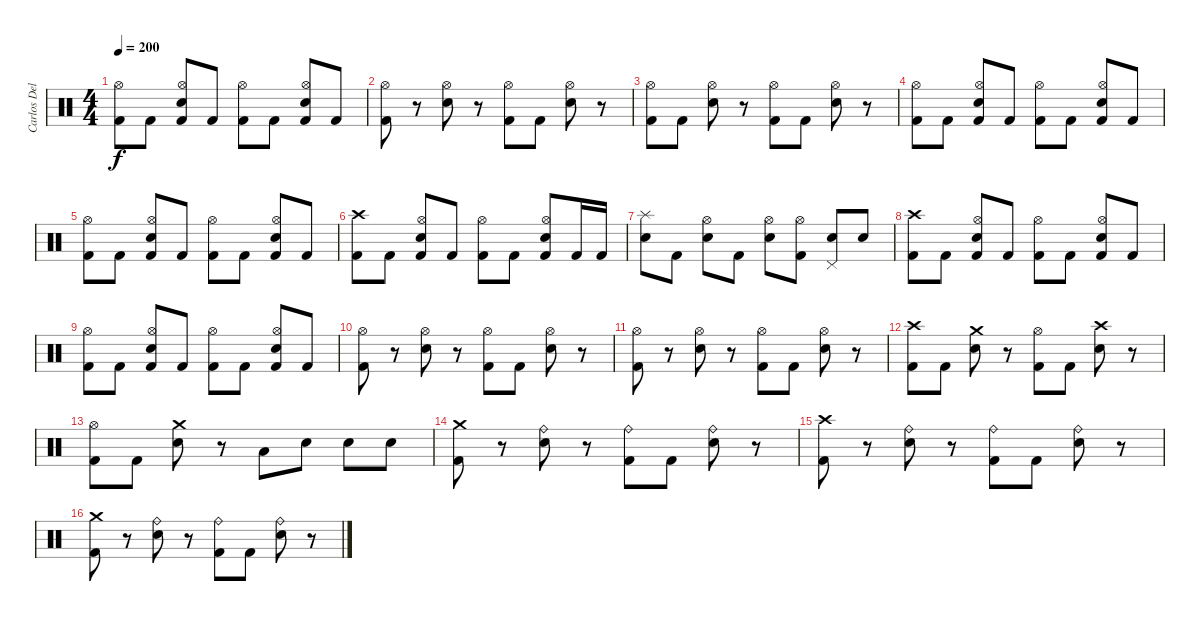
\track ("Carlos Delgado" "Carlos Del") {instrument percussion}
\staff {score}
\articulation defaults
\ts (4 4)
\tempo 200
\clef neutral
\ks c
("Kick (hit) 2" "Hi-Hat (open)").8{dy f} "Kick (hit) 2".8 ("Kick (hit) 2" "Electric Snare (hit)" "Hi-Hat (open)").8 "Kick (hit) 2".8 ("Hi-Hat (open)" "Kick (hit) 2").8 "Kick (hit) 2".8 ("Kick (hit) 2" "Hi-Hat (open)" "Electric Snare (hit)").8 "Kick (hit) 2".8 |
("Kick (hit) 2" "Hi-Hat (open)").8 r.8 ("Electric Snare (hit)" "Hi-Hat (open)").8 r.8 ("Kick (hit) 2" "Hi-Hat (open)").8 "Kick (hit) 2".8 ("Electric Snare (hit)" "Hi-Hat (open)").8 r.8 |
("Kick (hit) 2" "Hi-Hat (open)").8 "Kick (hit) 2".8 ("Hi-Hat (open)" "Electric Snare (hit)").8 r.8 ("Hi-Hat (open)" "Kick (hit) 2").8 "Kick (hit) 2".8 ("Hi-Hat (open)" "Electric Snare (hit)").8 r.8 |
("Kick (hit) 2" "Hi-Hat (open)").8 "Kick (hit) 2".8 ("Kick (hit) 2" "Electric Snare (hit)" "Hi-Hat (open)").8 "Kick (hit) 2".8 ("Hi-Hat (open)" "Kick (hit) 2").8 "Kick (hit) 2".8 ("Kick (hit) 2" "Hi-Hat (open)" "Electric Snare (hit)").8 "Kick (hit) 2".8 |
("Kick (hit) 2" "Hi-Hat (open)").8 "Kick (hit) 2".8 ("Kick (hit) 2" "Electric Snare (hit)" "Hi-Hat (open)").8 "Kick (hit) 2".8 ("Kick (hit) 2" "Hi-Hat (open)").8 "Kick (hit) 2".8 ("Kick (hit) 2" "Electric Snare (hit)" "Hi-Hat (open)").8 "Kick (hit) 2".8 |
("Kick (hit) 2" "Crash high (hit)").8 "Kick (hit) 2".8 ("Kick (hit) 2" "Electric Snare (hit)" "Hi-Hat (open)").8 "Kick (hit) 2".8 ("Hi-Hat (open)" "Kick (hit) 2").8 "Kick (hit) 2".8 ("Kick (hit) 2" "Hi-Hat (open)" "Electric Snare (hit)").8 "Kick (hit) 2".16 "Kick (hit) 2".16 |
("Splash (hit)" "Electric Snare (hit)").8 "Kick (hit) 2".8 ("Hi-Hat (open)" "Electric Snare (hit)").8 "Kick (hit) 2".8 ("Hi-Hat (open)" "Electric Snare (hit)").8 ("Kick (hit) 2" "Hi-Hat (open)").8 ("Pedal Hi-Hat (hit)" "Electric Snare (hit)").8 "Electric Snare (hit)".8 |
("Kick (hit) 2" "Crash high (hit)").8 "Kick (hit) 2".8 ("Kick (hit) 2" "Electric Snare (hit)" "Hi-Hat (open)").8 "Kick (hit) 2".8 ("Kick (hit) 2" "Hi-Hat (open)").8 "Kick (hit) 2".8 ("Kick (hit) 2" "Electric Snare (hit)" "Hi-Hat (open)").8 "Kick (hit) 2".8 |
("Kick (hit) 2" "Hi-Hat (open)").8 "Kick (hit) 2".8 ("Kick (hit) 2" "Electric Snare (hit)" "Hi-Hat (open)").8 "Kick (hit) 2".8 ("Kick (hit) 2" "Hi-Hat (open)").8 "Kick (hit) 2".8 ("Kick (hit) 2" "Hi-Hat (open)" "Electric Snare (hit)").8 "Kick (hit) 2".8 |
("Kick (hit) 2" "Hi-Hat (open)").8 r.8 ("Electric Snare (hit)" "Hi-Hat (open)").8 r.8 ("Kick (hit) 2" "Hi-Hat (open)").8 "Kick (hit) 2".8 ("Electric Snare (hit)" "Hi-Hat (open)").8 r.8 |
("Kick (hit) 2" "Hi-Hat (open)").8 r.8 ("Hi-Hat (open)" "Electric Snare (hit)").8 r.8 ("Hi-Hat (open)" "Kick (hit) 2").8 "Kick (hit) 2".8 ("Hi-Hat (open)" "Electric Snare (hit)").8 r.8 |
("Kick (hit) 2" "Crash high (hit)").8 "Kick (hit) 2".8 ("Electric Snare (hit)" "Crash medium (hit)").8 r.8 ("Hi-Hat (open)" "Kick (hit) 2").8 "Kick (hit) 2".8 ("Crash high (hit)" "Electric Snare (hit)").8 r.8 |
("Kick (hit) 2" "Hi-Hat (open)").8 "Kick (hit) 2".8 ("Crash medium (hit)" "Electric Snare (hit)").8 r.8 "Low Tom (hit)".8 "Electric Snare (hit)".8 "Electric Snare (hit)".8 "Electric Snare (hit)".8 |
("Kick (hit) 2" "Crash medium (hit)").8 r.8 ("Electric Snare (hit)" "Ride (bell)").8 r.8 ("Ride (bell)" "Kick (hit) 2").8 "Kick (hit) 2".8 ("Ride (bell)" "Electric Snare (hit)").8 r.8 |
("Kick (hit) 2" "Crash high (hit)").8 r.8 ("Electric Snare (hit)" "Ride (bell)").8 r.8 ("Ride (bell)" "Kick (hit) 2").8 "Kick (hit) 2".8 ("Ride (bell)" "Electric Snare (hit)").8 r.8 |
("Crash medium (hit)" "Kick (hit) 2").8 r.8 ("Ride (bell)" "Electric Snare (hit)").8 r.8 ("Ride (bell)" "Kick (hit) 2").8 "Kick (hit) 2".8 ("Ride (bell)" "Electric Snare (hit)").8 r.8
